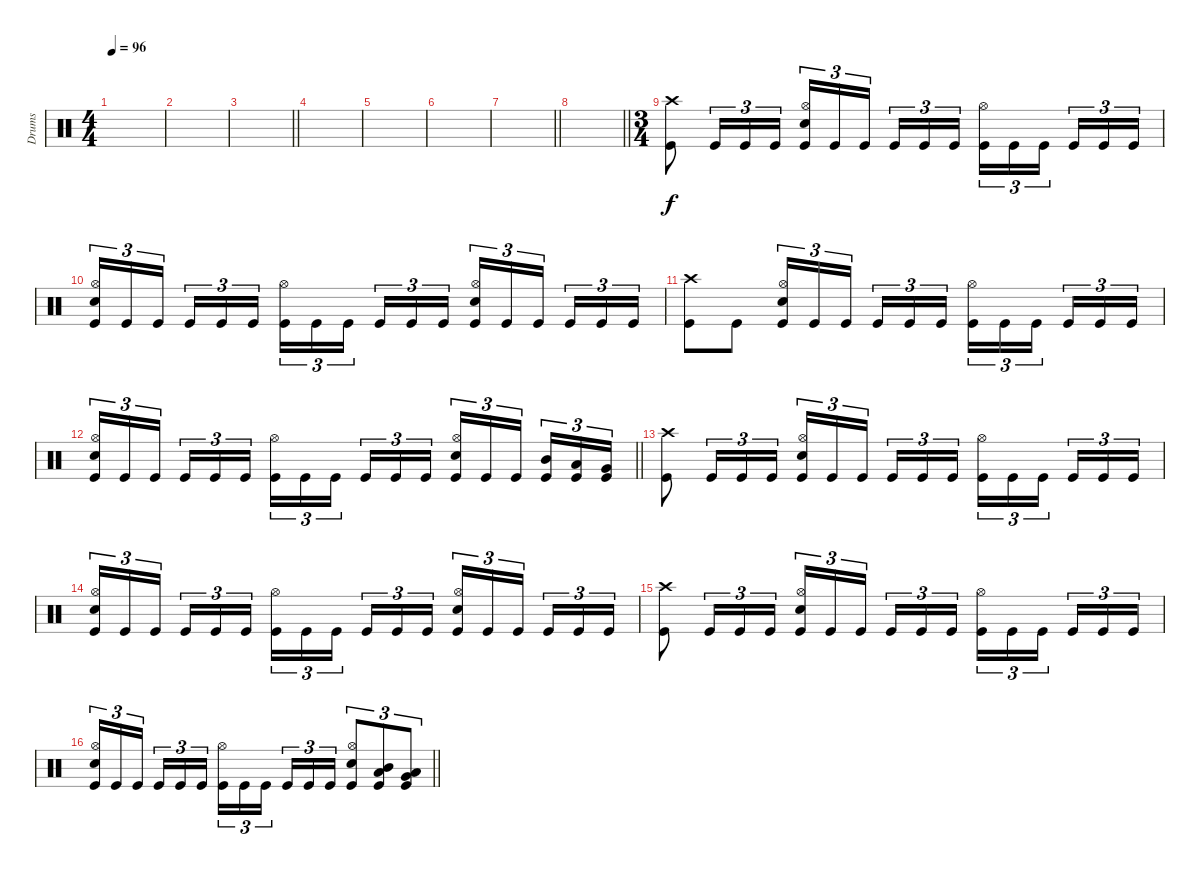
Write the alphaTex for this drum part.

\track ("Drums" "Drums") {instrument percussion}
\staff
\articulation defaults
\ts (4 4)
\tempo 96
\clef neutral
\ks c
|
|
\barLineRight lightlight
|
|
|
|
\barLineRight lightlight
|
\barLineRight lightlight
|
\ts (3 4)
\section ("" "")
("Crash high (hit)" "Kick (hit)").8 "Kick (hit)".16{tu (3 2)} "Kick (hit)".16{tu (3 2)} "Kick (hit)".16{tu (3 2)} ("Hi-Hat (open)" "Electric Snare (hit)" "Kick (hit)").16{tu (3 2)} "Kick (hit)".16{tu (3 2)} "Kick (hit)".16{tu (3 2) beam splitsecondary} "Kick (hit)".16{tu (3 2)} "Kick (hit)".16{tu (3 2)} "Kick (hit)".16{tu (3 2)} ("Hi-Hat (open)" "Kick (hit)").16{tu (3 2)} "Kick (hit)".16{tu (3 2)} "Kick (hit)".16{tu (3 2) beam splitsecondary} "Kick (hit)".16{tu (3 2)} "Kick (hit)".16{tu (3 2)} "Kick (hit)".16{tu (3 2)} |
("Hi-Hat (open)" "Electric Snare (hit)" "Kick (hit)").16{tu (3 2)} "Kick (hit)".16{tu (3 2)} "Kick (hit)".16{tu (3 2) beam splitsecondary} "Kick (hit)".16{tu (3 2)} "Kick (hit)".16{tu (3 2)} "Kick (hit)".16{tu (3 2)} ("Hi-Hat (open)" "Kick (hit)").16{tu (3 2)} "Kick (hit)".16{tu (3 2)} "Kick (hit)".16{tu (3 2) beam splitsecondary} "Kick (hit)".16{tu (3 2)} "Kick (hit)".16{tu (3 2)} "Kick (hit)".16{tu (3 2)} ("Hi-Hat (open)" "Electric Snare (hit)" "Kick (hit)").16{tu (3 2)} "Kick (hit)".16{tu (3 2)} "Kick (hit)".16{tu (3 2) beam splitsecondary} "Kick (hit)".16{tu (3 2)} "Kick (hit)".16{tu (3 2)} "Kick (hit)".16{tu (3 2)} |
("Crash high (hit)" "Kick (hit)").8 "Kick (hit)".8 ("Hi-Hat (open)" "Electric Snare (hit)" "Kick (hit)").16{tu (3 2)} "Kick (hit)".16{tu (3 2)} "Kick (hit)".16{tu (3 2) beam splitsecondary} "Kick (hit)".16{tu (3 2)} "Kick (hit)".16{tu (3 2)} "Kick (hit)".16{tu (3 2)} ("Hi-Hat (open)" "Kick (hit)").16{tu (3 2)} "Kick (hit)".16{tu (3 2)} "Kick (hit)".16{tu (3 2) beam splitsecondary} "Kick (hit)".16{tu (3 2)} "Kick (hit)".16{tu (3 2)} "Kick (hit)".16{tu (3 2)} |
\barLineRight lightlight
("Hi-Hat (open)" "Electric Snare (hit)" "Kick (hit)").16{tu (3 2)} "Kick (hit)".16{tu (3 2)} "Kick (hit)".16{tu (3 2) beam splitsecondary} "Kick (hit)".16{tu (3 2)} "Kick (hit)".16{tu (3 2)} "Kick (hit)".16{tu (3 2)} ("Hi-Hat (open)" "Kick (hit)").16{tu (3 2)} "Kick (hit)".16{tu (3 2)} "Kick (hit)".16{tu (3 2) beam splitsecondary} "Kick (hit)".16{tu (3 2)} "Kick (hit)".16{tu (3 2)} "Kick (hit)".16{tu (3 2)} ("Hi-Hat (open)" "Electric Snare (hit)" "Kick (hit)").16{tu (3 2)} "Kick (hit)".16{tu (3 2)} "Kick (hit)".16{tu (3 2) beam splitsecondary} ("Mid Tom (hit)" "Kick (hit)").16{tu (3 2)} ("Low Tom (hit)" "Kick (hit)").16{tu (3 2)} ("Very Low Tom (hit)" "Kick (hit)").16{tu (3 2)} |
("Crash high (hit)" "Kick (hit)").8 "Kick (hit)".16{tu (3 2)} "Kick (hit)".16{tu (3 2)} "Kick (hit)".16{tu (3 2)} ("Hi-Hat (open)" "Electric Snare (hit)" "Kick (hit)").16{tu (3 2)} "Kick (hit)".16{tu (3 2)} "Kick (hit)".16{tu (3 2) beam splitsecondary} "Kick (hit)".16{tu (3 2)} "Kick (hit)".16{tu (3 2)} "Kick (hit)".16{tu (3 2)} ("Hi-Hat (open)" "Kick (hit)").16{tu (3 2)} "Kick (hit)".16{tu (3 2)} "Kick (hit)".16{tu (3 2) beam splitsecondary} "Kick (hit)".16{tu (3 2)} "Kick (hit)".16{tu (3 2)} "Kick (hit)".16{tu (3 2)} |
("Hi-Hat (open)" "Electric Snare (hit)" "Kick (hit)").16{tu (3 2)} "Kick (hit)".16{tu (3 2)} "Kick (hit)".16{tu (3 2) beam splitsecondary} "Kick (hit)".16{tu (3 2)} "Kick (hit)".16{tu (3 2)} "Kick (hit)".16{tu (3 2)} ("Hi-Hat (open)" "Kick (hit)").16{tu (3 2)} "Kick (hit)".16{tu (3 2)} "Kick (hit)".16{tu (3 2) beam splitsecondary} "Kick (hit)".16{tu (3 2)} "Kick (hit)".16{tu (3 2)} "Kick (hit)".16{tu (3 2)} ("Hi-Hat (open)" "Electric Snare (hit)" "Kick (hit)").16{tu (3 2)} "Kick (hit)".16{tu (3 2)} "Kick (hit)".16{tu (3 2) beam splitsecondary} "Kick (hit)".16{tu (3 2)} "Kick (hit)".16{tu (3 2)} "Kick (hit)".16{tu (3 2)} |
("Crash high (hit)" "Kick (hit)").8 "Kick (hit)".16{tu (3 2)} "Kick (hit)".16{tu (3 2)} "Kick (hit)".16{tu (3 2)} ("Hi-Hat (open)" "Electric Snare (hit)" "Kick (hit)").16{tu (3 2)} "Kick (hit)".16{tu (3 2)} "Kick (hit)".16{tu (3 2) beam splitsecondary} "Kick (hit)".16{tu (3 2)} "Kick (hit)".16{tu (3 2)} "Kick (hit)".16{tu (3 2)} ("Hi-Hat (open)" "Kick (hit)").16{tu (3 2)} "Kick (hit)".16{tu (3 2)} "Kick (hit)".16{tu (3 2) beam splitsecondary} "Kick (hit)".16{tu (3 2)} "Kick (hit)".16{tu (3 2)} "Kick (hit)".16{tu (3 2)} |
\barLineRight lightlight
("Hi-Hat (open)" "Electric Snare (hit)" "Kick (hit)").16{tu (3 2)} "Kick (hit)".16{tu (3 2)} "Kick (hit)".16{tu (3 2) beam splitsecondary} "Kick (hit)".16{tu (3 2)} "Kick (hit)".16{tu (3 2)} "Kick (hit)".16{tu (3 2)} ("Hi-Hat (open)" "Kick (hit)").16{tu (3 2)} "Kick (hit)".16{tu (3 2)} "Kick (hit)".16{tu (3 2) beam splitsecondary} "Kick (hit)".16{tu (3 2)} "Kick (hit)".16{tu (3 2)} "Kick (hit)".16{tu (3 2)} ("Hi-Hat (open)" "Electric Snare (hit)" "Kick (hit)").8{tu (3 2)} ("Mid Tom (hit)" "Low Tom (hit)" "Kick (hit)").8{tu (3 2)} ("Low Tom (hit)" "Very Low Tom (hit)" "Kick (hit)").8{tu (3 2)}
